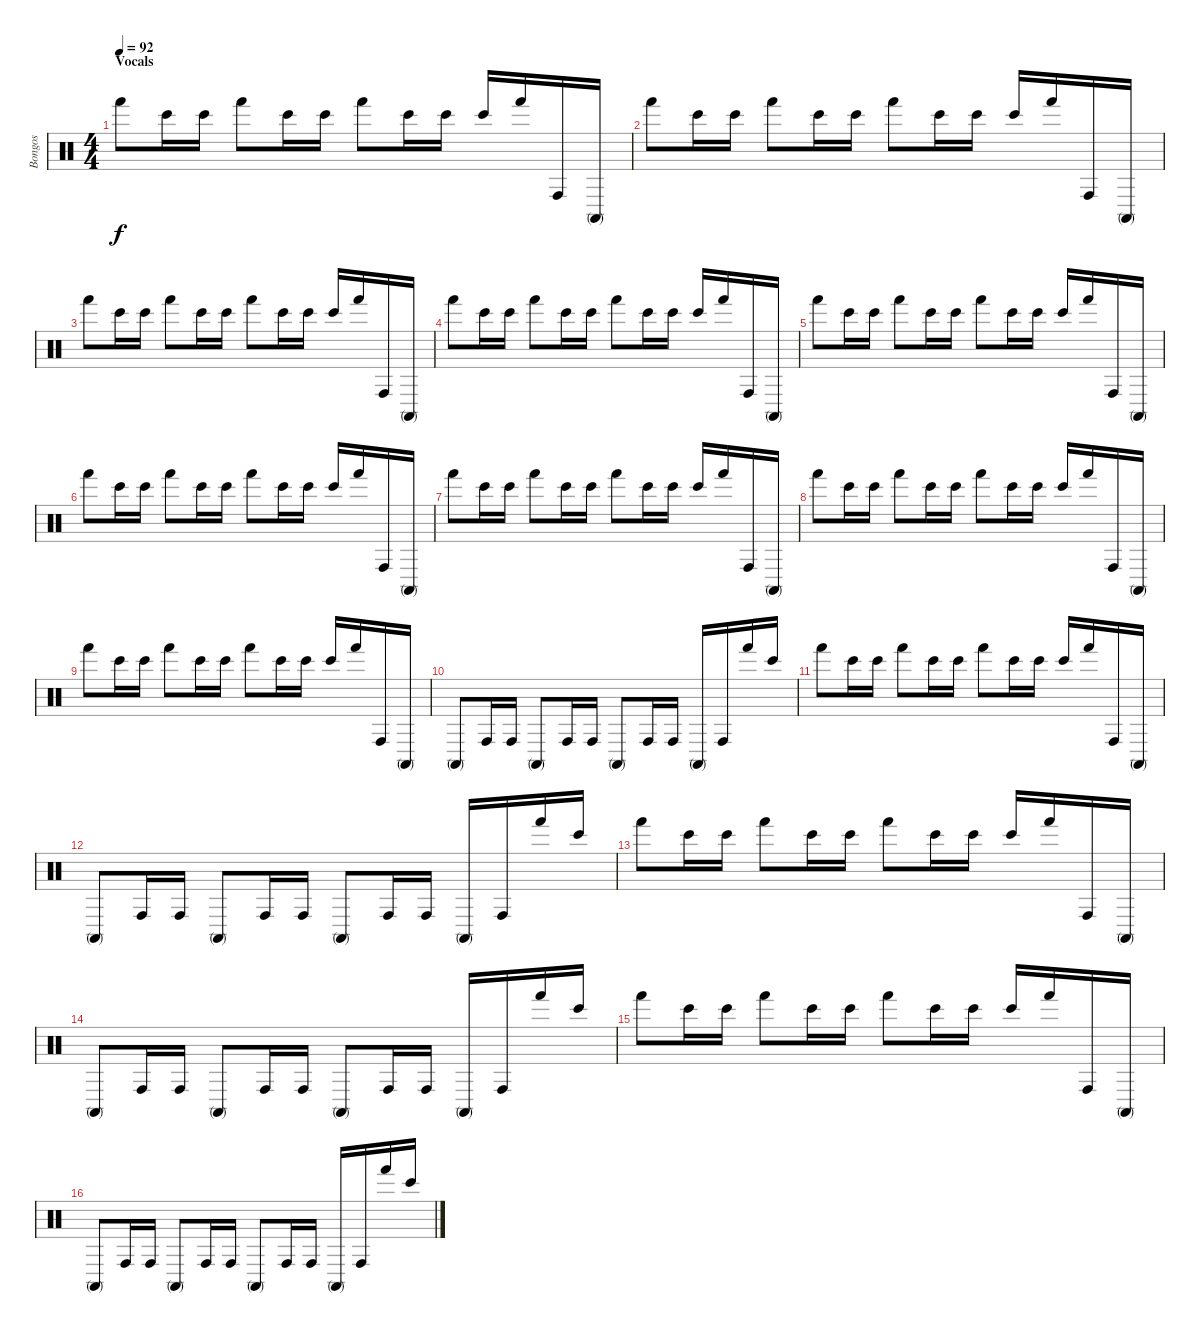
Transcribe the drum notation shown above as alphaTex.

\track ("Bongos" "Bongos") {instrument percussion}
\staff {score}
\articulation defaults
\ts (4 4)
\section ("" "Vocals")
\tempo 92
\clef neutral
\ks c "Hand (hit)".8{dy f} "Bongo High (hit)".16 "Bongo High (hit)".16 "Hand (hit)".8 "Bongo High (hit)".16 "Bongo High (hit)".16 "Hand (hit)".8 "Bongo High (hit)".16 "Bongo High (hit)".16 "Bongo High (hit)".16 "Hand (hit)".16 "Conga high (hit)".16 "Conga high (mute)".16
|
"Hand (hit)".8 "Bongo High (hit)".16 "Bongo High (hit)".16 "Hand (hit)".8 "Bongo High (hit)".16 "Bongo High (hit)".16 "Hand (hit)".8 "Bongo High (hit)".16 "Bongo High (hit)".16 "Bongo High (hit)".16 "Hand (hit)".16 "Conga high (hit)".16 "Conga high (mute)".16 |
"Hand (hit)".8 "Bongo High (hit)".16 "Bongo High (hit)".16 "Hand (hit)".8 "Bongo High (hit)".16 "Bongo High (hit)".16 "Hand (hit)".8 "Bongo High (hit)".16 "Bongo High (hit)".16 "Bongo High (hit)".16 "Hand (hit)".16 "Conga high (hit)".16 "Conga high (mute)".16 |
"Hand (hit)".8 "Bongo High (hit)".16 "Bongo High (hit)".16 "Hand (hit)".8 "Bongo High (hit)".16 "Bongo High (hit)".16 "Hand (hit)".8 "Bongo High (hit)".16 "Bongo High (hit)".16 "Bongo High (hit)".16 "Hand (hit)".16 "Conga high (hit)".16 "Conga high (mute)".16 |
"Hand (hit)".8 "Bongo High (hit)".16 "Bongo High (hit)".16 "Hand (hit)".8 "Bongo High (hit)".16 "Bongo High (hit)".16 "Hand (hit)".8 "Bongo High (hit)".16 "Bongo High (hit)".16 "Bongo High (hit)".16 "Hand (hit)".16 "Conga high (hit)".16 "Conga high (mute)".16 |
"Hand (hit)".8 "Bongo High (hit)".16 "Bongo High (hit)".16 "Hand (hit)".8 "Bongo High (hit)".16 "Bongo High (hit)".16 "Hand (hit)".8 "Bongo High (hit)".16 "Bongo High (hit)".16 "Bongo High (hit)".16 "Hand (hit)".16 "Conga high (hit)".16 "Conga high (mute)".16 |
"Hand (hit)".8 "Bongo High (hit)".16 "Bongo High (hit)".16 "Hand (hit)".8 "Bongo High (hit)".16 "Bongo High (hit)".16 "Hand (hit)".8 "Bongo High (hit)".16 "Bongo High (hit)".16 "Bongo High (hit)".16 "Hand (hit)".16 "Conga high (hit)".16 "Conga high (mute)".16 |
"Hand (hit)".8 "Bongo High (hit)".16 "Bongo High (hit)".16 "Hand (hit)".8 "Bongo High (hit)".16 "Bongo High (hit)".16 "Hand (hit)".8 "Bongo High (hit)".16 "Bongo High (hit)".16 "Bongo High (hit)".16 "Hand (hit)".16 "Conga high (hit)".16 "Conga high (mute)".16 |
"Hand (hit)".8 "Bongo High (hit)".16 "Bongo High (hit)".16 "Hand (hit)".8 "Bongo High (hit)".16 "Bongo High (hit)".16 "Hand (hit)".8 "Bongo High (hit)".16 "Bongo High (hit)".16 "Bongo High (hit)".16 "Hand (hit)".16 "Conga high (hit)".16 "Conga high (mute)".16 |
"Conga high (mute)".8 "Conga high (hit)".16 "Conga high (hit)".16 "Conga high (mute)".8 "Conga high (hit)".16 "Conga high (hit)".16 "Conga high (mute)".8 "Conga high (hit)".16 "Conga high (hit)".16 "Conga high (mute)".16 "Conga high (hit)".16 "Hand (hit)".16 "Bongo High (hit)".16 |
"Hand (hit)".8 "Bongo High (hit)".16 "Bongo High (hit)".16 "Hand (hit)".8 "Bongo High (hit)".16 "Bongo High (hit)".16 "Hand (hit)".8 "Bongo High (hit)".16 "Bongo High (hit)".16 "Bongo High (hit)".16 "Hand (hit)".16 "Conga high (hit)".16 "Conga high (mute)".16 |
"Conga high (mute)".8 "Conga high (hit)".16 "Conga high (hit)".16 "Conga high (mute)".8 "Conga high (hit)".16 "Conga high (hit)".16 "Conga high (mute)".8 "Conga high (hit)".16 "Conga high (hit)".16 "Conga high (mute)".16 "Conga high (hit)".16 "Hand (hit)".16 "Bongo High (hit)".16 |
"Hand (hit)".8 "Bongo High (hit)".16 "Bongo High (hit)".16 "Hand (hit)".8 "Bongo High (hit)".16 "Bongo High (hit)".16 "Hand (hit)".8 "Bongo High (hit)".16 "Bongo High (hit)".16 "Bongo High (hit)".16 "Hand (hit)".16 "Conga high (hit)".16 "Conga high (mute)".16 |
"Conga high (mute)".8 "Conga high (hit)".16 "Conga high (hit)".16 "Conga high (mute)".8 "Conga high (hit)".16 "Conga high (hit)".16 "Conga high (mute)".8 "Conga high (hit)".16 "Conga high (hit)".16 "Conga high (mute)".16 "Conga high (hit)".16 "Hand (hit)".16 "Bongo High (hit)".16 |
"Hand (hit)".8 "Bongo High (hit)".16 "Bongo High (hit)".16 "Hand (hit)".8 "Bongo High (hit)".16 "Bongo High (hit)".16 "Hand (hit)".8 "Bongo High (hit)".16 "Bongo High (hit)".16 "Bongo High (hit)".16 "Hand (hit)".16 "Conga high (hit)".16 "Conga high (mute)".16 |
"Conga high (mute)".8 "Conga high (hit)".16 "Conga high (hit)".16 "Conga high (mute)".8 "Conga high (hit)".16 "Conga high (hit)".16 "Conga high (mute)".8 "Conga high (hit)".16 "Conga high (hit)".16 "Conga high (mute)".16 "Conga high (hit)".16 "Hand (hit)".16 "Bongo High (hit)".16
